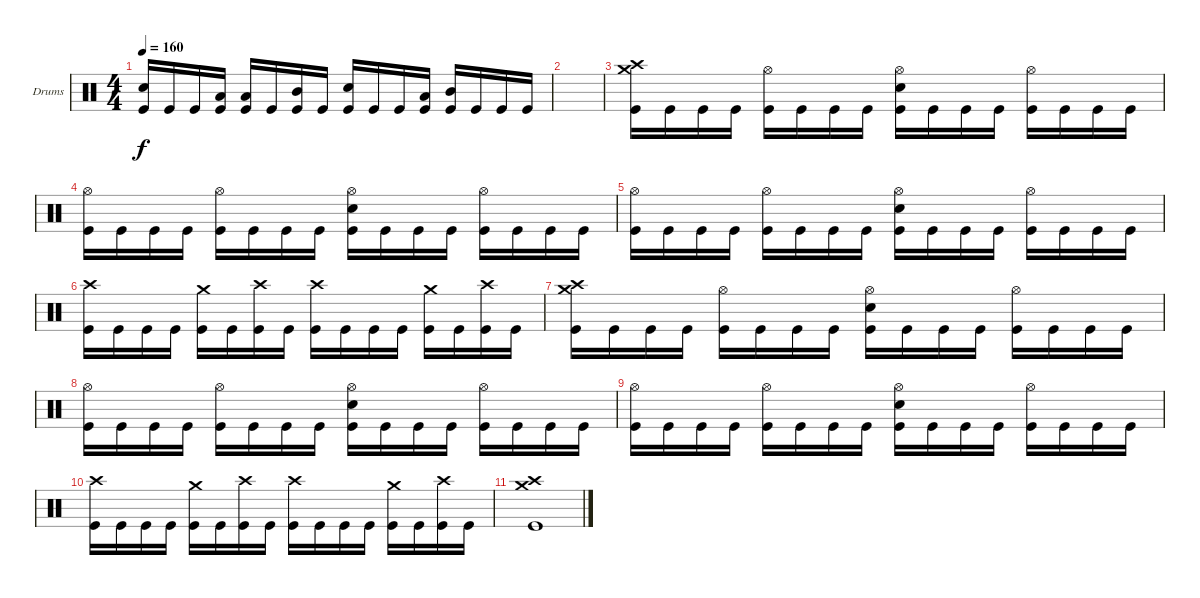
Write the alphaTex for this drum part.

\defaultSystemsLayout 4
\bracketExtendMode groupsimilarinstruments
\firstSystemTrackNameOrientation horizontal
\otherSystemsTrackNameOrientation horizontal
\track ("Moe Carlson" "Drums") {instrument percussion}
\staff {score}
\articulation defaults
\ts (4 4)
\tempo 160
\clef neutral
\ks c
("Snare (hit) 2" "Kick (hit)").16{dy f} "Kick (hit)".16 "Kick (hit)".16 ("Kick (hit)" "Low Tom (hit)").16 ("Kick (hit)" "Low Tom (hit)").16 "Kick (hit)".16 ("Kick (hit)" "Mid Tom (hit)").16 "Kick (hit)".16 ("Kick (hit)" "Snare (hit) 2").16 "Kick (hit)".16 "Kick (hit)".16 ("Kick (hit)" "Low Tom (hit)").16 ("Kick (hit)" "Mid Tom (hit)").16 "Kick (hit)".16 "Kick (hit)".16 "Kick (hit)".16 |
|
("Kick (hit)" "Crash medium (hit)" "Crash high (hit)").16 "Kick (hit)".16 "Kick (hit)".16 "Kick (hit)".16 ("Kick (hit)" "Hi-Hat (open)").16 "Kick (hit)".16 "Kick (hit)".16 "Kick (hit)".16 ("Kick (hit)" "Snare (hit) 2" "Hi-Hat (open)").16 "Kick (hit)".16 "Kick (hit)".16 "Kick (hit)".16 ("Kick (hit)" "Hi-Hat (open)").16 "Kick (hit)".16 "Kick (hit)".16 "Kick (hit)".16 |
("Kick (hit)" "Hi-Hat (open)").16 "Kick (hit)".16 "Kick (hit)".16 "Kick (hit)".16 ("Kick (hit)" "Hi-Hat (open)").16 "Kick (hit)".16 "Kick (hit)".16 "Kick (hit)".16 ("Kick (hit)" "Hi-Hat (open)" "Snare (hit) 2").16 "Kick (hit)".16 "Kick (hit)".16 "Kick (hit)".16 ("Kick (hit)" "Hi-Hat (open)").16 "Kick (hit)".16 "Kick (hit)".16 "Kick (hit)".16 |
("Kick (hit)" "Hi-Hat (open)").16 "Kick (hit)".16 "Kick (hit)".16 "Kick (hit)".16 ("Kick (hit)" "Hi-Hat (open)").16 "Kick (hit)".16 "Kick (hit)".16 "Kick (hit)".16 ("Kick (hit)" "Hi-Hat (open)" "Snare (hit) 2").16 "Kick (hit)".16 "Kick (hit)".16 "Kick (hit)".16 ("Kick (hit)" "Hi-Hat (open)").16 "Kick (hit)".16 "Kick (hit)".16 "Kick (hit)".16 |
("Crash high (hit)" "Kick (hit)").16 "Kick (hit)".16 "Kick (hit)".16 "Kick (hit)".16 ("Kick (hit)" "Crash medium (hit)").16 "Kick (hit)".16 ("Kick (hit)" "Crash high (hit)").16 "Kick (hit)".16 ("Kick (hit)" "Crash high (hit)").16 "Kick (hit)".16 "Kick (hit)".16 "Kick (hit)".16 ("Kick (hit)" "Crash medium (hit)").16 "Kick (hit)".16 ("Kick (hit)" "Crash high (hit)").16 "Kick (hit)".16 |
("Kick (hit)" "Crash medium (hit)" "Crash high (hit)").16 "Kick (hit)".16 "Kick (hit)".16 "Kick (hit)".16 ("Kick (hit)" "Hi-Hat (open)").16 "Kick (hit)".16 "Kick (hit)".16 "Kick (hit)".16 ("Kick (hit)" "Snare (hit) 2" "Hi-Hat (open)").16 "Kick (hit)".16 "Kick (hit)".16 "Kick (hit)".16 ("Kick (hit)" "Hi-Hat (open)").16 "Kick (hit)".16 "Kick (hit)".16 "Kick (hit)".16 |
("Kick (hit)" "Hi-Hat (open)").16 "Kick (hit)".16 "Kick (hit)".16 "Kick (hit)".16 ("Kick (hit)" "Hi-Hat (open)").16 "Kick (hit)".16 "Kick (hit)".16 "Kick (hit)".16 ("Kick (hit)" "Hi-Hat (open)" "Snare (hit) 2").16 "Kick (hit)".16 "Kick (hit)".16 "Kick (hit)".16 ("Kick (hit)" "Hi-Hat (open)").16 "Kick (hit)".16 "Kick (hit)".16 "Kick (hit)".16 |
("Kick (hit)" "Hi-Hat (open)").16 "Kick (hit)".16 "Kick (hit)".16 "Kick (hit)".16 ("Kick (hit)" "Hi-Hat (open)").16 "Kick (hit)".16 "Kick (hit)".16 "Kick (hit)".16 ("Kick (hit)" "Hi-Hat (open)" "Snare (hit) 2").16 "Kick (hit)".16 "Kick (hit)".16 "Kick (hit)".16 ("Kick (hit)" "Hi-Hat (open)").16 "Kick (hit)".16 "Kick (hit)".16 "Kick (hit)".16 |
("Crash high (hit)" "Kick (hit)").16 "Kick (hit)".16 "Kick (hit)".16 "Kick (hit)".16 ("Kick (hit)" "Crash medium (hit)").16 "Kick (hit)".16 ("Kick (hit)" "Crash high (hit)").16 "Kick (hit)".16 ("Kick (hit)" "Crash high (hit)").16 "Kick (hit)".16 "Kick (hit)".16 "Kick (hit)".16 ("Kick (hit)" "Crash medium (hit)").16 "Kick (hit)".16 ("Kick (hit)" "Crash high (hit)").16 "Kick (hit)".16 |
("Kick (hit)" "Crash medium (hit)" "Crash high (hit)").1
